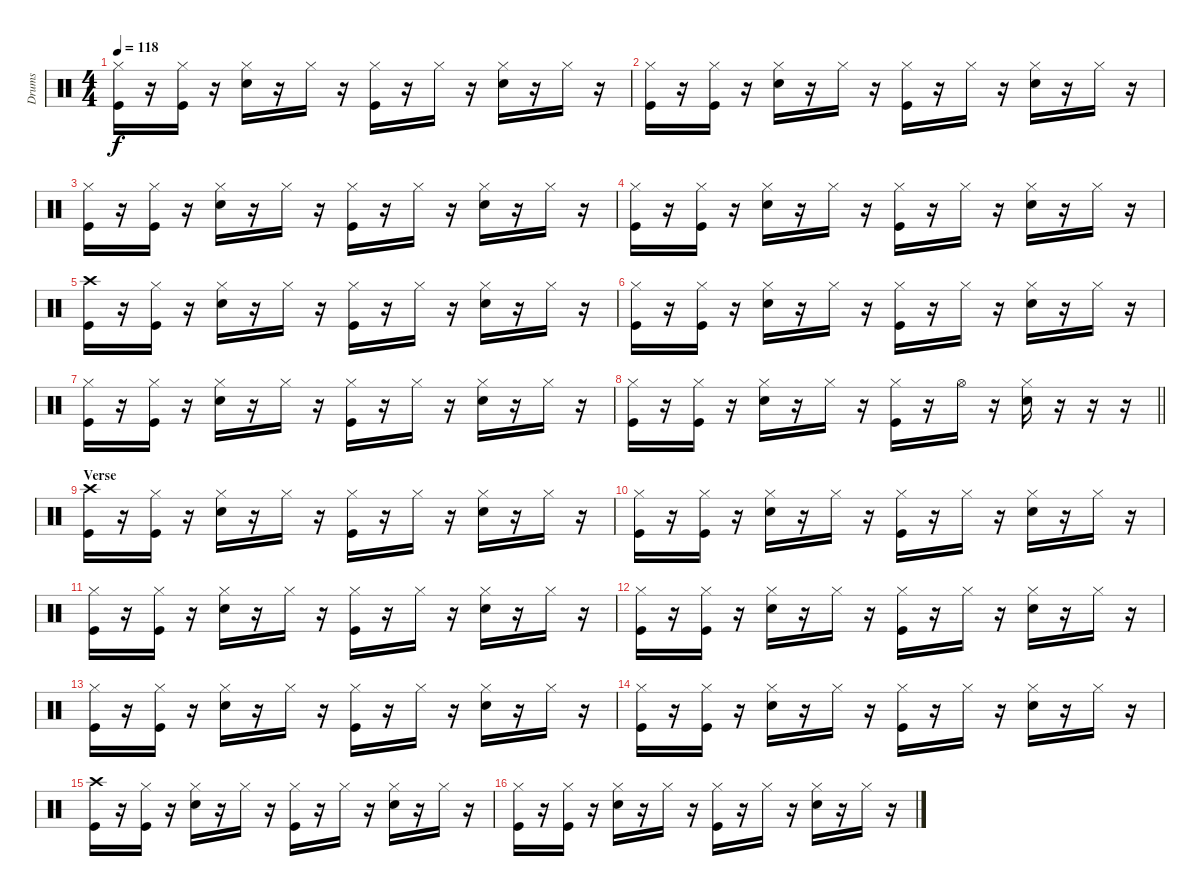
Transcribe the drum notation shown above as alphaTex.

\track ("Drums" "Drums") {instrument percussion}
\staff {score}
\articulation defaults
\ts (4 4)
\tempo 118
\clef neutral
\ks c
("Hi-Hat (closed)" "Kick (hit)").16{dy f} r.16 ("Hi-Hat (closed)" "Kick (hit)").16 r.16 ("Hi-Hat (closed)" "Snare (hit) 2").16 r.16 "Hi-Hat (closed)".16 r.16 ("Hi-Hat (closed)" "Kick (hit)").16 r.16 "Hi-Hat (closed)".16 r.16 ("Hi-Hat (closed)" "Snare (hit) 2").16 r.16 "Hi-Hat (closed)".16 r.16 |
("Hi-Hat (closed)" "Kick (hit)").16 r.16 ("Hi-Hat (closed)" "Kick (hit)").16 r.16 ("Hi-Hat (closed)" "Snare (hit) 2").16 r.16 "Hi-Hat (closed)".16 r.16 ("Hi-Hat (closed)" "Kick (hit)").16 r.16 "Hi-Hat (closed)".16 r.16 ("Hi-Hat (closed)" "Snare (hit) 2").16 r.16 "Hi-Hat (closed)".16 r.16 |
("Hi-Hat (closed)" "Kick (hit)").16 r.16 ("Hi-Hat (closed)" "Kick (hit)").16 r.16 ("Hi-Hat (closed)" "Snare (hit) 2").16 r.16 "Hi-Hat (closed)".16 r.16 ("Hi-Hat (closed)" "Kick (hit)").16 r.16 "Hi-Hat (closed)".16 r.16 ("Hi-Hat (closed)" "Snare (hit) 2").16 r.16 "Hi-Hat (closed)".16 r.16 |
("Hi-Hat (closed)" "Kick (hit)").16 r.16 ("Hi-Hat (closed)" "Kick (hit)").16 r.16 ("Hi-Hat (closed)" "Snare (hit) 2").16 r.16 "Hi-Hat (closed)".16 r.16 ("Hi-Hat (closed)" "Kick (hit)").16 r.16 "Hi-Hat (closed)".16 r.16 ("Hi-Hat (closed)" "Snare (hit) 2").16 r.16 "Hi-Hat (closed)".16 r.16 |
("Crash high (hit)" "Kick (hit)").16 r.16 ("Hi-Hat (closed)" "Kick (hit)").16 r.16 ("Hi-Hat (closed)" "Snare (hit) 2").16 r.16 "Hi-Hat (closed)".16 r.16 ("Hi-Hat (closed)" "Kick (hit)").16 r.16 "Hi-Hat (closed)".16 r.16 ("Hi-Hat (closed)" "Snare (hit) 2").16 r.16 "Hi-Hat (closed)".16 r.16 |
("Hi-Hat (closed)" "Kick (hit)").16 r.16 ("Hi-Hat (closed)" "Kick (hit)").16 r.16 ("Hi-Hat (closed)" "Snare (hit) 2").16 r.16 "Hi-Hat (closed)".16 r.16 ("Hi-Hat (closed)" "Kick (hit)").16 r.16 "Hi-Hat (closed)".16 r.16 ("Hi-Hat (closed)" "Snare (hit) 2").16 r.16 "Hi-Hat (closed)".16 r.16 |
("Hi-Hat (closed)" "Kick (hit)").16 r.16 ("Hi-Hat (closed)" "Kick (hit)").16 r.16 ("Hi-Hat (closed)" "Snare (hit) 2").16 r.16 "Hi-Hat (closed)".16 r.16 ("Hi-Hat (closed)" "Kick (hit)").16 r.16 "Hi-Hat (closed)".16 r.16 ("Hi-Hat (closed)" "Snare (hit) 2").16 r.16 "Hi-Hat (closed)".16 r.16 |
\barLineRight lightlight
("Hi-Hat (closed)" "Kick (hit)").16 r.16 ("Hi-Hat (closed)" "Kick (hit)").16 r.16 ("Hi-Hat (closed)" "Snare (hit) 2").16 r.16 "Hi-Hat (closed)".16 r.16 ("Hi-Hat (closed)" "Kick (hit)").16 r.16 "Hi-Hat (open)".16 r.16 ("Hi-Hat (closed)" "Snare (hit) 2").16 r.16 r.16 r.16 |
\section ("" "Verse")
("Crash high (hit)" "Kick (hit)").16 r.16 ("Hi-Hat (closed)" "Kick (hit)").16 r.16 ("Hi-Hat (closed)" "Snare (hit) 2").16 r.16 "Hi-Hat (closed)".16 r.16 ("Hi-Hat (closed)" "Kick (hit)").16 r.16 "Hi-Hat (closed)".16 r.16 ("Hi-Hat (closed)" "Snare (hit) 2").16 r.16 "Hi-Hat (closed)".16 r.16 |
("Hi-Hat (closed)" "Kick (hit)").16 r.16 ("Hi-Hat (closed)" "Kick (hit)").16 r.16 ("Hi-Hat (closed)" "Snare (hit) 2").16 r.16 "Hi-Hat (closed)".16 r.16 ("Hi-Hat (closed)" "Kick (hit)").16 r.16 "Hi-Hat (closed)".16 r.16 ("Hi-Hat (closed)" "Snare (hit) 2").16 r.16 "Hi-Hat (closed)".16 r.16 |
("Hi-Hat (closed)" "Kick (hit)").16 r.16 ("Hi-Hat (closed)" "Kick (hit)").16 r.16 ("Hi-Hat (closed)" "Snare (hit) 2").16 r.16 "Hi-Hat (closed)".16 r.16 ("Hi-Hat (closed)" "Kick (hit)").16 r.16 "Hi-Hat (closed)".16 r.16 ("Hi-Hat (closed)" "Snare (hit) 2").16 r.16 "Hi-Hat (closed)".16 r.16 |
("Hi-Hat (closed)" "Kick (hit)").16 r.16 ("Hi-Hat (closed)" "Kick (hit)").16 r.16 ("Hi-Hat (closed)" "Snare (hit) 2").16 r.16 "Hi-Hat (closed)".16 r.16 ("Hi-Hat (closed)" "Kick (hit)").16 r.16 "Hi-Hat (closed)".16 r.16 ("Hi-Hat (closed)" "Snare (hit) 2").16 r.16 "Hi-Hat (closed)".16 r.16 |
("Hi-Hat (closed)" "Kick (hit)").16 r.16 ("Hi-Hat (closed)" "Kick (hit)").16 r.16 ("Hi-Hat (closed)" "Snare (hit) 2").16 r.16 "Hi-Hat (closed)".16 r.16 ("Hi-Hat (closed)" "Kick (hit)").16 r.16 "Hi-Hat (closed)".16 r.16 ("Hi-Hat (closed)" "Snare (hit) 2").16 r.16 "Hi-Hat (closed)".16 r.16 |
("Hi-Hat (closed)" "Kick (hit)").16 r.16 ("Hi-Hat (closed)" "Kick (hit)").16 r.16 ("Hi-Hat (closed)" "Snare (hit) 2").16 r.16 "Hi-Hat (closed)".16 r.16 ("Hi-Hat (closed)" "Kick (hit)").16 r.16 "Hi-Hat (closed)".16 r.16 ("Hi-Hat (closed)" "Snare (hit) 2").16 r.16 "Hi-Hat (closed)".16 r.16 |
("Crash high (hit)" "Kick (hit)").16 r.16 ("Hi-Hat (closed)" "Kick (hit)").16 r.16 ("Hi-Hat (closed)" "Snare (hit) 2").16 r.16 "Hi-Hat (closed)".16 r.16 ("Hi-Hat (closed)" "Kick (hit)").16 r.16 "Hi-Hat (closed)".16 r.16 ("Hi-Hat (closed)" "Snare (hit) 2").16 r.16 "Hi-Hat (closed)".16 r.16 |
("Hi-Hat (closed)" "Kick (hit)").16 r.16 ("Hi-Hat (closed)" "Kick (hit)").16 r.16 ("Hi-Hat (closed)" "Snare (hit) 2").16 r.16 "Hi-Hat (closed)".16 r.16 ("Hi-Hat (closed)" "Kick (hit)").16 r.16 "Hi-Hat (closed)".16 r.16 ("Hi-Hat (closed)" "Snare (hit) 2").16 r.16 "Hi-Hat (closed)".16 r.16
